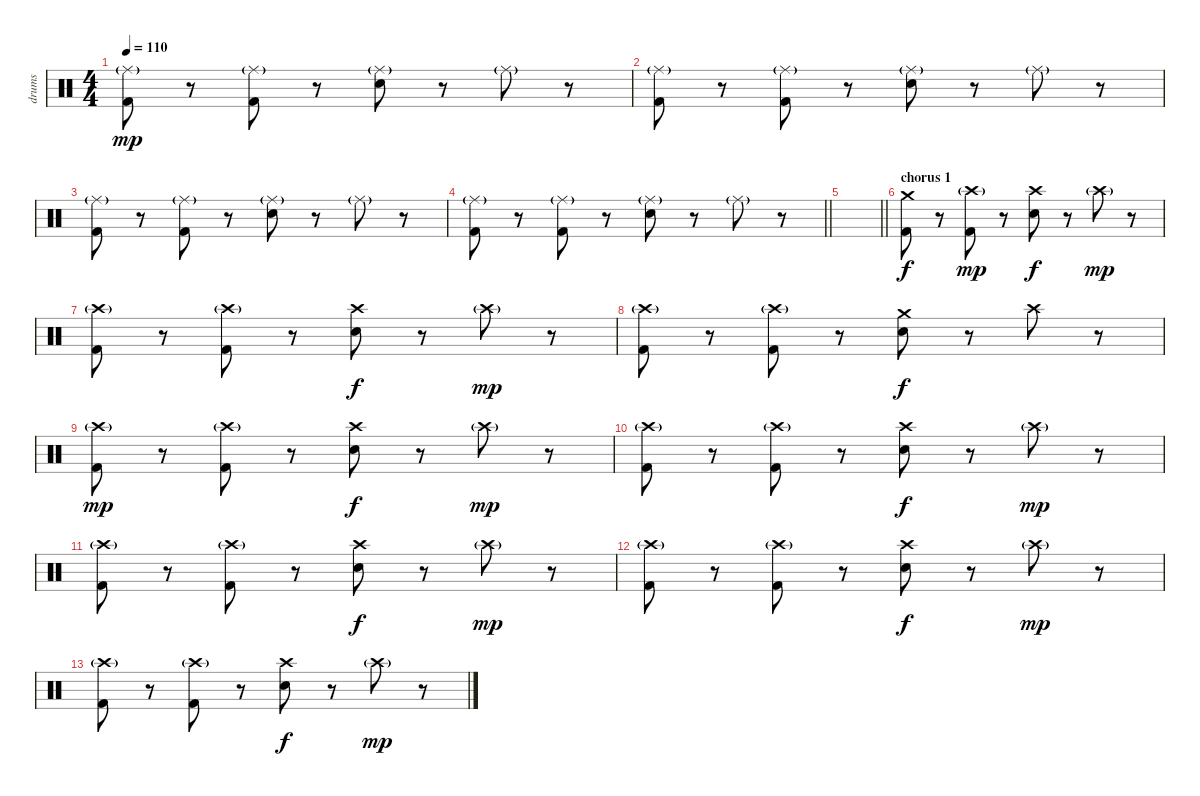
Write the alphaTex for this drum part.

\track ("drums" "drums") {instrument percussion}
\staff {score}
\articulation defaults
\ts (4 4)
\tempo 110
\clef neutral
\ks c
("Kick (hit) 2" "Ride (middle)"{g}).8{dy mp} r.8 ("Kick (hit) 2" "Ride (middle)"{g}).8 r.8 ("Electric Snare (hit)" "Ride (middle)"{g}).8 r.8 "Ride (middle)"{g}.8 r.8 |
("Kick (hit) 2" "Ride (middle)"{g}).8 r.8 ("Kick (hit) 2" "Ride (middle)"{g}).8 r.8 ("Electric Snare (hit)" "Ride (middle)"{g}).8 r.8 "Ride (middle)"{g}.8 r.8 |
("Kick (hit) 2" "Ride (middle)"{g}).8 r.8 ("Kick (hit) 2" "Ride (middle)"{g}).8 r.8 ("Electric Snare (hit)" "Ride (middle)"{g}).8 r.8 "Ride (middle)"{g}.8 r.8 |
\barLineRight lightlight
("Kick (hit) 2" "Ride (middle)"{g}).8 r.8 ("Kick (hit) 2" "Ride (middle)"{g}).8 r.8 ("Electric Snare (hit)" "Ride (middle)"{g}).8 r.8 "Ride (middle)"{g}.8 r.8 |
\barLineRight lightlight
|
\section ("" "chorus 1")
("Kick (hit) 2" "Crash medium (hit)").8{dy f volume 16} r.8 ("Kick (hit) 2" "Crash high (hit)"{g}).8{dy mp} r.8 ("Electric Snare (hit)" "Crash high (hit)").8{dy f} r.8 "Crash high (hit)"{g}.8{dy mp} r.8 |
("Kick (hit) 2" "Crash high (hit)"{g}).8 r.8 ("Kick (hit) 2" "Crash high (hit)"{g}).8 r.8 ("Electric Snare (hit)" "Crash high (hit)").8{dy f} r.8 "Crash high (hit)"{g}.8{dy mp} r.8 |
("Kick (hit) 2" "Crash high (hit)"{g}).8 r.8 ("Kick (hit) 2" "Crash high (hit)"{g}).8 r.8 ("Electric Snare (hit)" "Crash medium (hit)").8{dy f} r.8 "Crash high (hit)".8 r.8 |
("Kick (hit) 2" "Crash high (hit)"{g}).8{dy mp} r.8 ("Kick (hit) 2" "Crash high (hit)"{g}).8 r.8 ("Electric Snare (hit)" "Crash high (hit)").8{dy f} r.8 "Crash high (hit)"{g}.8{dy mp} r.8 |
("Kick (hit) 2" "Crash high (hit)"{g}).8 r.8 ("Kick (hit) 2" "Crash high (hit)"{g}).8 r.8 ("Electric Snare (hit)" "Crash high (hit)").8{dy f} r.8 "Crash high (hit)"{g}.8{dy mp} r.8 |
("Kick (hit) 2" "Crash high (hit)"{g}).8 r.8 ("Kick (hit) 2" "Crash high (hit)"{g}).8 r.8 ("Electric Snare (hit)" "Crash high (hit)").8{dy f} r.8 "Crash high (hit)"{g}.8{dy mp} r.8 |
("Kick (hit) 2" "Crash high (hit)"{g}).8 r.8 ("Kick (hit) 2" "Crash high (hit)"{g}).8 r.8 ("Electric Snare (hit)" "Crash high (hit)").8{dy f} r.8 "Crash high (hit)"{g}.8{dy mp} r.8 |
("Kick (hit) 2" "Crash high (hit)"{g}).8 r.8 ("Kick (hit) 2" "Crash high (hit)"{g}).8 r.8 ("Electric Snare (hit)" "Crash high (hit)").8{dy f} r.8 "Crash high (hit)"{g}.8{dy mp} r.8
